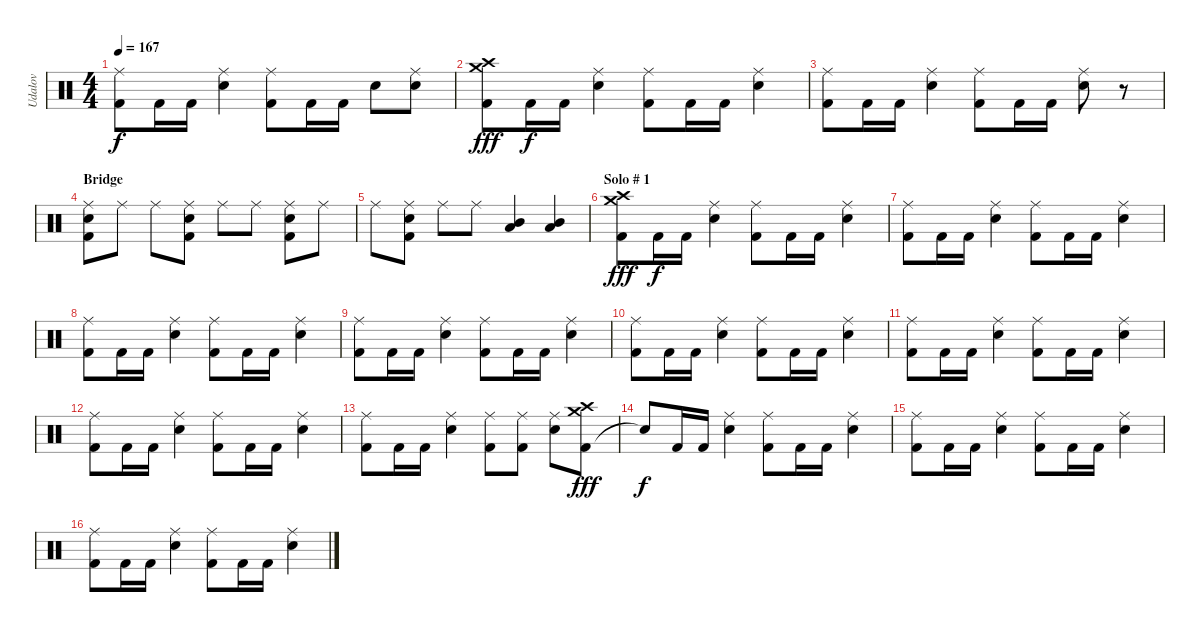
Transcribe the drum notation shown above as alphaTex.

\track ("Udalov" "Udalov") {instrument percussion}
\staff {score}
\articulation defaults
\ts (4 4)
\tempo 167
\clef neutral
\ks c
("Kick (hit) 2" "Ride (middle)").8{dy f} "Kick (hit) 2".16 "Kick (hit) 2".16 ("Snare (hit) 2" "Ride (middle)").4 ("Kick (hit) 2" "Ride (middle)").8 "Kick (hit) 2".16 "Kick (hit) 2".16 "Snare (hit) 2".8 ("Snare (hit) 2" "Ride (middle)").8 |
("Kick (hit) 2" "Crash high (hit)" "Crash medium (hit)").8{dy fff} "Kick (hit) 2".16{dy f} "Kick (hit) 2".16 ("Snare (hit) 2" "Ride (middle)").4 ("Kick (hit) 2" "Ride (middle)").8 "Kick (hit) 2".16 "Kick (hit) 2".16 ("Snare (hit) 2" "Ride (middle)").4 |
("Kick (hit) 2" "Ride (middle)").8 "Kick (hit) 2".16 "Kick (hit) 2".16 ("Snare (hit) 2" "Ride (middle)").4 ("Kick (hit) 2" "Ride (middle)").8 "Kick (hit) 2".16 "Kick (hit) 2".16 ("Snare (hit) 2" "Ride (middle)").8 r.8 |
\section ("" "Bridge")
("Kick (hit) 2" "Electric Snare (hit)" "Ride (middle)").8 "Ride (middle)".8 "Ride (middle)".8 ("Kick (hit) 2" "Electric Snare (hit)" "Ride (middle)").8 "Ride (middle)".8 "Ride (middle)".8 ("Kick (hit) 2" "Electric Snare (hit)" "Ride (middle)").8 "Ride (middle)".8 |
"Ride (middle)".8 ("Electric Snare (hit)" "Kick (hit) 2" "Ride (middle)").8 "Ride (middle)".8 "Ride (middle)".8 ("Low Tom (hit)" "Mid Tom (hit)").4 ("Low Tom (hit)" "Mid Tom (hit)").4 |
\section ("" "Solo # 1")
("Kick (hit) 2" "Crash high (hit)" "Crash medium (hit)").8{dy fff} "Kick (hit) 2".16{dy f} "Kick (hit) 2".16 ("Snare (hit) 2" "Ride (middle)").4 ("Kick (hit) 2" "Ride (middle)").8 "Kick (hit) 2".16 "Kick (hit) 2".16 ("Snare (hit) 2" "Ride (middle)").4 |
("Kick (hit) 2" "Ride (middle)").8 "Kick (hit) 2".16 "Kick (hit) 2".16 ("Snare (hit) 2" "Ride (middle)").4 ("Kick (hit) 2" "Ride (middle)").8 "Kick (hit) 2".16 "Kick (hit) 2".16 ("Snare (hit) 2" "Ride (middle)").4 |
("Kick (hit) 2" "Ride (middle)").8 "Kick (hit) 2".16 "Kick (hit) 2".16 ("Snare (hit) 2" "Ride (middle)").4 ("Kick (hit) 2" "Ride (middle)").8 "Kick (hit) 2".16 "Kick (hit) 2".16 ("Snare (hit) 2" "Ride (middle)").4 |
("Kick (hit) 2" "Ride (middle)").8 "Kick (hit) 2".16 "Kick (hit) 2".16 ("Snare (hit) 2" "Ride (middle)").4 ("Kick (hit) 2" "Ride (middle)").8 "Kick (hit) 2".16 "Kick (hit) 2".16 ("Snare (hit) 2" "Ride (middle)").4 |
("Kick (hit) 2" "Ride (middle)").8 "Kick (hit) 2".16 "Kick (hit) 2".16 ("Snare (hit) 2" "Ride (middle)").4 ("Kick (hit) 2" "Ride (middle)").8 "Kick (hit) 2".16 "Kick (hit) 2".16 ("Snare (hit) 2" "Ride (middle)").4 |
("Kick (hit) 2" "Ride (middle)").8 "Kick (hit) 2".16 "Kick (hit) 2".16 ("Snare (hit) 2" "Ride (middle)").4 ("Kick (hit) 2" "Ride (middle)").8 "Kick (hit) 2".16 "Kick (hit) 2".16 ("Snare (hit) 2" "Ride (middle)").4 |
("Kick (hit) 2" "Ride (middle)").8 "Kick (hit) 2".16 "Kick (hit) 2".16 ("Snare (hit) 2" "Ride (middle)").4 ("Kick (hit) 2" "Ride (middle)").8 "Kick (hit) 2".16 "Kick (hit) 2".16 ("Snare (hit) 2" "Ride (middle)").4 |
("Kick (hit) 2" "Ride (middle)").8 "Kick (hit) 2".16 "Kick (hit) 2".16 ("Snare (hit) 2" "Ride (middle)").4 ("Kick (hit) 2" "Ride (middle)").8 ("Kick (hit) 2" "Ride (middle)").8 ("Snare (hit) 2" "Ride (middle)").8 ("Kick (hit) 2" "Crash high (hit)" "Crash medium (hit)").8{dy fff} |
"Snare (hit)"{t}.8{dy f} "Kick (hit) 2".16 "Kick (hit) 2".16 ("Snare (hit) 2" "Ride (middle)").4 ("Kick (hit) 2" "Ride (middle)").8 "Kick (hit) 2".16 "Kick (hit) 2".16 ("Snare (hit) 2" "Ride (middle)").4 |
("Kick (hit) 2" "Ride (middle)").8 "Kick (hit) 2".16 "Kick (hit) 2".16 ("Snare (hit) 2" "Ride (middle)").4 ("Kick (hit) 2" "Ride (middle)").8 "Kick (hit) 2".16 "Kick (hit) 2".16 ("Snare (hit) 2" "Ride (middle)").4 |
("Kick (hit) 2" "Ride (middle)").8 "Kick (hit) 2".16 "Kick (hit) 2".16 ("Snare (hit) 2" "Ride (middle)").4 ("Kick (hit) 2" "Ride (middle)").8 "Kick (hit) 2".16 "Kick (hit) 2".16 ("Snare (hit) 2" "Ride (middle)").4
